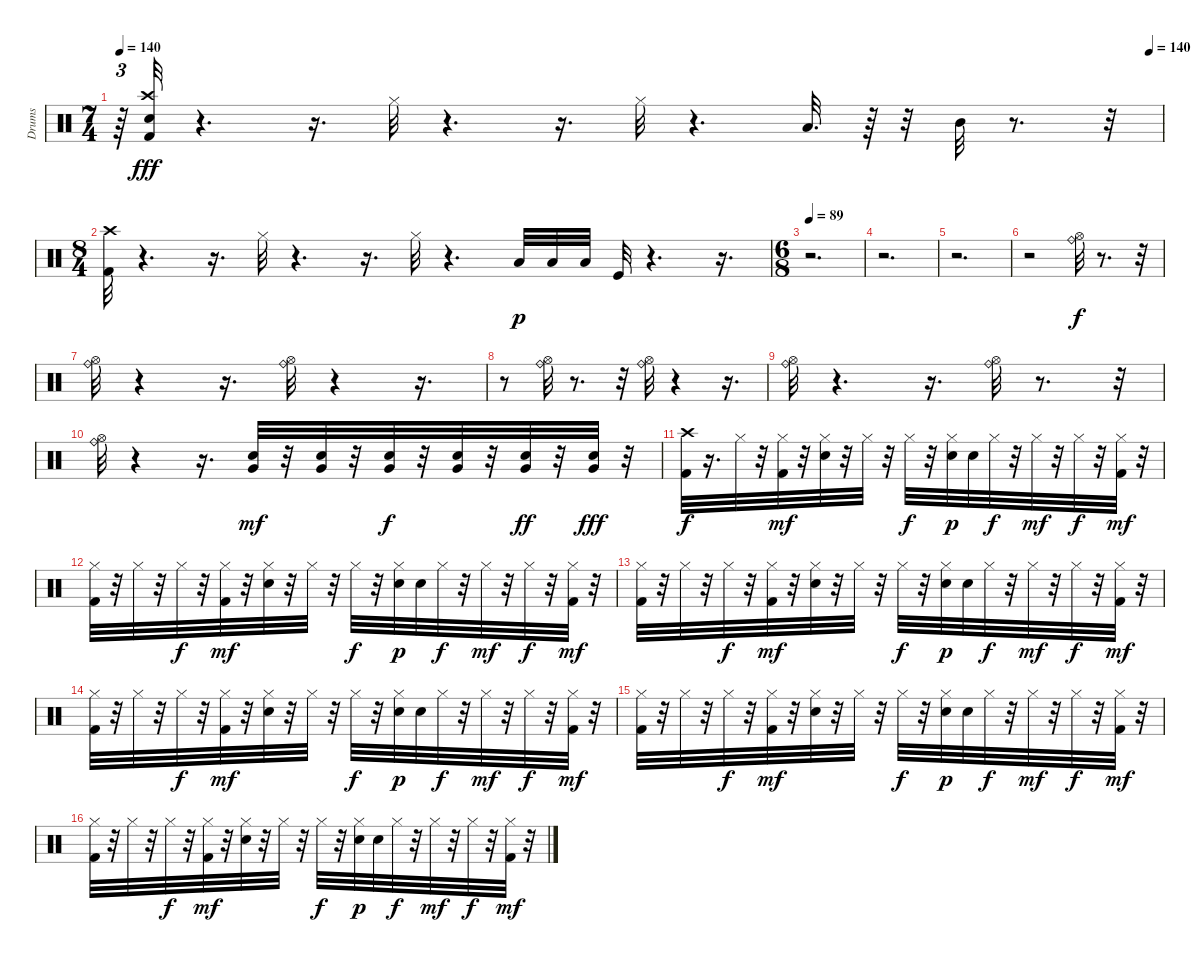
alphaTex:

\track ("Drums" "Drums") {instrument percussion}
\staff {score}
\articulation defaults
\ts (7 4)
\tempo 140
\tempo (140 0.9880952380952381)
\clef neutral
\ks c
r.64{tu (3 2) dy f} ("Kick (hit) 2" "Crash high (hit)" "Snare (hit) 2").32{dy fff} r.4{d} r.16{d} "Hi-Hat (closed)".32 r.4{d} r.16{d} "Hi-Hat (closed)".32 r.4{d} "Low Tom (hit)".32{d} r.64 r.32 "Mid Tom (hit)".32 r.8{d} r.32 |
\ts (8 4)
("Crash high (hit)" "Kick (hit) 2").32 r.4{d} r.16{d} "Hi-Hat (closed)".32 r.4{d} r.16{d} "Hi-Hat (closed)".32 r.4{d} "Low Floor Tom (hit)".32{dy p} "Low Floor Tom (hit)".32 "Low Floor Tom (hit)".32 "Kick (hit)".32 r.4{d} r.16{d} |
\ts (6 8)
\tempo 89
r.2{d} |
r.2{d} |
r.2{d} |
r.2 ("Hi-Hat (open)" "Ride (bell)").32{dy f} r.8{d} r.32 |
("Ride (bell)" "Hi-Hat (open)").32 r.4 r.16{d} ("Ride (bell)" "Hi-Hat (open)").32 r.4 r.16{d} |
r.8 ("Hi-Hat (open)" "Ride (bell)").32 r.8{d} r.32 ("Ride (bell)" "Hi-Hat (open)").32 r.4 r.16{d} |
("Hi-Hat (open)" "Ride (bell)").32 r.4{d} r.16{d} ("Ride (bell)" "Hi-Hat (open)").32 r.8{d} r.32 |
("Hi-Hat (open)" "Ride (bell)").32 r.4 r.16{d} ("Very Low Tom (hit)" "Snare (hit) 2").32{dy mf} r.32 ("Very Low Tom (hit)" "Snare (hit) 2").32 r.32 ("Very Low Tom (hit)" "Snare (hit) 2").32{dy f} r.32 ("Very Low Tom (hit)" "Snare (hit) 2").32 r.32 ("Very Low Tom (hit)" "Snare (hit) 2").32{dy ff} r.32 ("Very Low Tom (hit)" "Snare (hit) 2").32{dy fff} r.32 |
("Kick (hit) 2" "Crash high (hit)").32{dy f} r.16{d} "Hi-Hat (closed)".32 r.32 ("Kick (hit) 2" "Hi-Hat (closed)").32{dy mf} r.32 ("Hi-Hat (closed)" "Snare (hit) 2").32 r.32 "Hi-Hat (closed)".32 r.32 "Hi-Hat (closed)".32{dy f} r.32 ("Hi-Hat (closed)" "Snare (hit) 2").32{dy p} "Snare (hit) 2".32 "Hi-Hat (closed)".32{dy f} r.32 "Hi-Hat (closed)".32{dy mf} r.32 "Hi-Hat (closed)".32{dy f} r.32 ("Kick (hit) 2" "Hi-Hat (closed)").32{dy mf} r.32 |
("Hi-Hat (closed)" "Kick (hit) 2").32 r.32 "Hi-Hat (closed)".32 r.32 "Hi-Hat (closed)".32{dy f} r.32 ("Hi-Hat (closed)" "Kick (hit) 2").32{dy mf} r.32 ("Snare (hit) 2" "Hi-Hat (closed)").32 r.32 "Hi-Hat (closed)".32 r.32 "Hi-Hat (closed)".32{dy f} r.32 ("Hi-Hat (closed)" "Snare (hit) 2").32{dy p} "Snare (hit) 2".32 "Hi-Hat (closed)".32{dy f} r.32 "Hi-Hat (closed)".32{dy mf} r.32 "Hi-Hat (closed)".32{dy f} r.32 ("Hi-Hat (closed)" "Kick (hit) 2").32{dy mf} r.32 |
("Hi-Hat (closed)" "Kick (hit) 2").32 r.32 "Hi-Hat (closed)".32 r.32 "Hi-Hat (closed)".32{dy f} r.32 ("Hi-Hat (closed)" "Kick (hit) 2").32{dy mf} r.32 ("Snare (hit) 2" "Hi-Hat (closed)").32 r.32 "Hi-Hat (closed)".32 r.32 "Hi-Hat (closed)".32{dy f} r.32 ("Hi-Hat (closed)" "Snare (hit) 2").32{dy p} "Snare (hit) 2".32 "Hi-Hat (closed)".32{dy f} r.32 "Hi-Hat (closed)".32{dy mf} r.32 "Hi-Hat (closed)".32{dy f} r.32 ("Hi-Hat (closed)" "Kick (hit) 2").32{dy mf} r.32 |
("Hi-Hat (closed)" "Kick (hit) 2").32 r.32 "Hi-Hat (closed)".32 r.32 "Hi-Hat (closed)".32{dy f} r.32 ("Hi-Hat (closed)" "Kick (hit) 2").32{dy mf} r.32 ("Snare (hit) 2" "Hi-Hat (closed)").32 r.32 "Hi-Hat (closed)".32 r.32 "Hi-Hat (closed)".32{dy f} r.32 ("Hi-Hat (closed)" "Snare (hit) 2").32{dy p} "Snare (hit) 2".32 "Hi-Hat (closed)".32{dy f} r.32 "Hi-Hat (closed)".32{dy mf} r.32 "Hi-Hat (closed)".32{dy f} r.32 ("Hi-Hat (closed)" "Kick (hit) 2").32{dy mf} r.32 |
("Hi-Hat (closed)" "Kick (hit) 2").32 r.32 "Hi-Hat (closed)".32 r.32 "Hi-Hat (closed)".32{dy f} r.32 ("Hi-Hat (closed)" "Kick (hit) 2").32{dy mf} r.32 ("Snare (hit) 2" "Hi-Hat (closed)").32 r.32 "Hi-Hat (closed)".32 r.32 "Hi-Hat (closed)".32{dy f} r.32 ("Hi-Hat (closed)" "Snare (hit) 2").32{dy p} "Snare (hit) 2".32 "Hi-Hat (closed)".32{dy f} r.32 "Hi-Hat (closed)".32{dy mf} r.32 "Hi-Hat (closed)".32{dy f} r.32 ("Hi-Hat (closed)" "Kick (hit) 2").32{dy mf} r.32 |
("Hi-Hat (closed)" "Kick (hit) 2").32 r.32 "Hi-Hat (closed)".32 r.32 "Hi-Hat (closed)".32{dy f} r.32 ("Hi-Hat (closed)" "Kick (hit) 2").32{dy mf} r.32 ("Snare (hit) 2" "Hi-Hat (closed)").32 r.32 "Hi-Hat (closed)".32 r.32 "Hi-Hat (closed)".32{dy f} r.32 ("Hi-Hat (closed)" "Snare (hit) 2").32{dy p} "Snare (hit) 2".32 "Hi-Hat (closed)".32{dy f} r.32 "Hi-Hat (closed)".32{dy mf} r.32 "Hi-Hat (closed)".32{dy f} r.32 ("Hi-Hat (closed)" "Kick (hit) 2").32{dy mf} r.32
